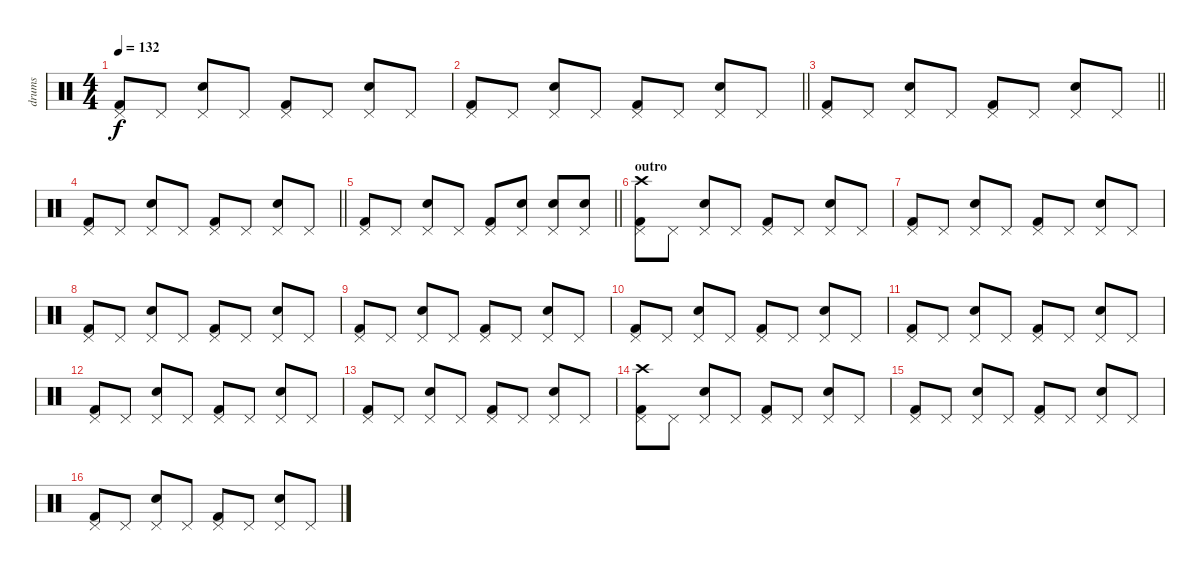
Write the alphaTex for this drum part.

\track ("drums" "drums") {instrument percussion}
\staff {score}
\articulation defaults
\ts (4 4)
\tempo 132
\clef neutral
\ks c
("Kick (hit) 2" "Pedal Hi-Hat (hit)").8{dy f} "Pedal Hi-Hat (hit)".8 ("Electric Snare (hit)" "Pedal Hi-Hat (hit)").8 "Pedal Hi-Hat (hit)".8 ("Kick (hit) 2" "Pedal Hi-Hat (hit)").8 "Pedal Hi-Hat (hit)".8 ("Electric Snare (hit)" "Pedal Hi-Hat (hit)").8 "Pedal Hi-Hat (hit)".8 |
\barLineRight lightlight
("Kick (hit) 2" "Pedal Hi-Hat (hit)").8 "Pedal Hi-Hat (hit)".8 ("Electric Snare (hit)" "Pedal Hi-Hat (hit)").8 "Pedal Hi-Hat (hit)".8 ("Kick (hit) 2" "Pedal Hi-Hat (hit)").8 "Pedal Hi-Hat (hit)".8 ("Electric Snare (hit)" "Pedal Hi-Hat (hit)").8 "Pedal Hi-Hat (hit)".8 |
\barLineRight lightlight
("Kick (hit) 2" "Pedal Hi-Hat (hit)").8 "Pedal Hi-Hat (hit)".8 ("Electric Snare (hit)" "Pedal Hi-Hat (hit)").8 "Pedal Hi-Hat (hit)".8 ("Kick (hit) 2" "Pedal Hi-Hat (hit)").8 "Pedal Hi-Hat (hit)".8 ("Electric Snare (hit)" "Pedal Hi-Hat (hit)").8 "Pedal Hi-Hat (hit)".8 |
\barLineRight lightlight
("Kick (hit) 2" "Pedal Hi-Hat (hit)").8 "Pedal Hi-Hat (hit)".8 ("Electric Snare (hit)" "Pedal Hi-Hat (hit)").8 "Pedal Hi-Hat (hit)".8 ("Kick (hit) 2" "Pedal Hi-Hat (hit)").8 "Pedal Hi-Hat (hit)".8 ("Electric Snare (hit)" "Pedal Hi-Hat (hit)").8 "Pedal Hi-Hat (hit)".8 |
\barLineRight lightlight
("Kick (hit) 2" "Pedal Hi-Hat (hit)").8 "Pedal Hi-Hat (hit)".8 ("Electric Snare (hit)" "Pedal Hi-Hat (hit)").8 "Pedal Hi-Hat (hit)".8 ("Kick (hit) 2" "Pedal Hi-Hat (hit)").8 ("Electric Snare (hit)" "Pedal Hi-Hat (hit)").8 ("Electric Snare (hit)" "Pedal Hi-Hat (hit)").8 ("Electric Snare (hit)" "Pedal Hi-Hat (hit)").8 |
\section ("" "outro")
("Kick (hit) 2" "Pedal Hi-Hat (hit)" "Crash high (hit)").8 "Pedal Hi-Hat (hit)".8 ("Electric Snare (hit)" "Pedal Hi-Hat (hit)").8 "Pedal Hi-Hat (hit)".8 ("Kick (hit) 2" "Pedal Hi-Hat (hit)").8 "Pedal Hi-Hat (hit)".8 ("Electric Snare (hit)" "Pedal Hi-Hat (hit)").8 "Pedal Hi-Hat (hit)".8 |
("Kick (hit) 2" "Pedal Hi-Hat (hit)").8 "Pedal Hi-Hat (hit)".8 ("Electric Snare (hit)" "Pedal Hi-Hat (hit)").8 "Pedal Hi-Hat (hit)".8 ("Kick (hit) 2" "Pedal Hi-Hat (hit)").8 "Pedal Hi-Hat (hit)".8 ("Electric Snare (hit)" "Pedal Hi-Hat (hit)").8 "Pedal Hi-Hat (hit)".8 |
("Kick (hit) 2" "Pedal Hi-Hat (hit)").8 "Pedal Hi-Hat (hit)".8 ("Electric Snare (hit)" "Pedal Hi-Hat (hit)").8 "Pedal Hi-Hat (hit)".8 ("Kick (hit) 2" "Pedal Hi-Hat (hit)").8 "Pedal Hi-Hat (hit)".8 ("Electric Snare (hit)" "Pedal Hi-Hat (hit)").8 "Pedal Hi-Hat (hit)".8 |
("Kick (hit) 2" "Pedal Hi-Hat (hit)").8 "Pedal Hi-Hat (hit)".8 ("Electric Snare (hit)" "Pedal Hi-Hat (hit)").8 "Pedal Hi-Hat (hit)".8 ("Kick (hit) 2" "Pedal Hi-Hat (hit)").8 "Pedal Hi-Hat (hit)".8 ("Electric Snare (hit)" "Pedal Hi-Hat (hit)").8 "Pedal Hi-Hat (hit)".8 |
("Kick (hit) 2" "Pedal Hi-Hat (hit)").8 "Pedal Hi-Hat (hit)".8 ("Electric Snare (hit)" "Pedal Hi-Hat (hit)").8 "Pedal Hi-Hat (hit)".8 ("Kick (hit) 2" "Pedal Hi-Hat (hit)").8 "Pedal Hi-Hat (hit)".8 ("Electric Snare (hit)" "Pedal Hi-Hat (hit)").8 "Pedal Hi-Hat (hit)".8 |
("Kick (hit) 2" "Pedal Hi-Hat (hit)").8 "Pedal Hi-Hat (hit)".8 ("Electric Snare (hit)" "Pedal Hi-Hat (hit)").8 "Pedal Hi-Hat (hit)".8 ("Kick (hit) 2" "Pedal Hi-Hat (hit)").8 "Pedal Hi-Hat (hit)".8 ("Electric Snare (hit)" "Pedal Hi-Hat (hit)").8 "Pedal Hi-Hat (hit)".8 |
("Kick (hit) 2" "Pedal Hi-Hat (hit)").8 "Pedal Hi-Hat (hit)".8 ("Electric Snare (hit)" "Pedal Hi-Hat (hit)").8 "Pedal Hi-Hat (hit)".8 ("Kick (hit) 2" "Pedal Hi-Hat (hit)").8 "Pedal Hi-Hat (hit)".8 ("Electric Snare (hit)" "Pedal Hi-Hat (hit)").8 "Pedal Hi-Hat (hit)".8 |
("Kick (hit) 2" "Pedal Hi-Hat (hit)").8 "Pedal Hi-Hat (hit)".8 ("Electric Snare (hit)" "Pedal Hi-Hat (hit)").8 "Pedal Hi-Hat (hit)".8 ("Kick (hit) 2" "Pedal Hi-Hat (hit)").8 "Pedal Hi-Hat (hit)".8 ("Electric Snare (hit)" "Pedal Hi-Hat (hit)").8 "Pedal Hi-Hat (hit)".8 |
("Kick (hit) 2" "Pedal Hi-Hat (hit)" "Crash high (hit)").8 "Pedal Hi-Hat (hit)".8 ("Electric Snare (hit)" "Pedal Hi-Hat (hit)").8 "Pedal Hi-Hat (hit)".8 ("Kick (hit) 2" "Pedal Hi-Hat (hit)").8 "Pedal Hi-Hat (hit)".8 ("Electric Snare (hit)" "Pedal Hi-Hat (hit)").8 "Pedal Hi-Hat (hit)".8 |
("Kick (hit) 2" "Pedal Hi-Hat (hit)").8 "Pedal Hi-Hat (hit)".8 ("Electric Snare (hit)" "Pedal Hi-Hat (hit)").8 "Pedal Hi-Hat (hit)".8 ("Kick (hit) 2" "Pedal Hi-Hat (hit)").8 "Pedal Hi-Hat (hit)".8 ("Electric Snare (hit)" "Pedal Hi-Hat (hit)").8 "Pedal Hi-Hat (hit)".8 |
("Kick (hit) 2" "Pedal Hi-Hat (hit)").8 "Pedal Hi-Hat (hit)".8 ("Electric Snare (hit)" "Pedal Hi-Hat (hit)").8 "Pedal Hi-Hat (hit)".8 ("Kick (hit) 2" "Pedal Hi-Hat (hit)").8 "Pedal Hi-Hat (hit)".8 ("Electric Snare (hit)" "Pedal Hi-Hat (hit)").8 "Pedal Hi-Hat (hit)".8
